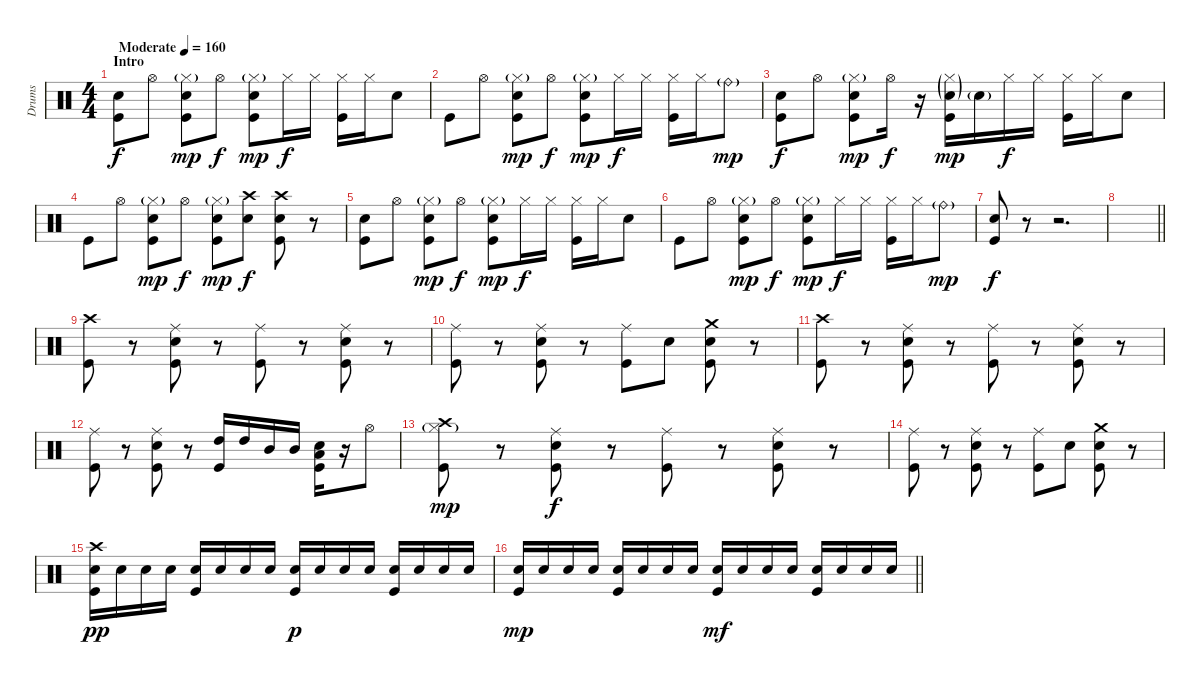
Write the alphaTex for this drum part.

\track ("Drums" "Drums") {instrument percussion}
\staff {score}
\articulation defaults
\ts (4 4)
\section ("" "Intro")
\tempo (160 "Moderate")
\clef neutral
\ks c
("Snare (hit) 2" "Kick (hit)").8{dy f} "Hi-Hat (open)".8 ("Hi-Hat (closed)"{g} "Snare (hit) 2" "Kick (hit)").8{dy mp} "Hi-Hat (open)".8{dy f} ("Hi-Hat (closed)"{g} "Snare (hit) 2" "Kick (hit)").8{dy mp} "Hi-Hat (closed)".16{dy f} "Hi-Hat (closed)".16 ("Hi-Hat (closed)" "Kick (hit)").16 "Hi-Hat (closed)".16 "Snare (hit) 2".8 |
"Kick (hit)".8 "Hi-Hat (open)".8 ("Hi-Hat (closed)"{g} "Snare (hit) 2" "Kick (hit)").8{dy mp} "Hi-Hat (open)".8{dy f} ("Hi-Hat (closed)"{g} "Snare (hit) 2" "Kick (hit)").8{dy mp} "Hi-Hat (closed)".16{dy f} "Hi-Hat (closed)".16 ("Hi-Hat (closed)" "Kick (hit)").16 "Hi-Hat (closed)".16 "Ride (bell)"{g}.8{dy mp} |
("Snare (hit) 2" "Kick (hit)").8{dy f} "Hi-Hat (open)".8 ("Hi-Hat (closed)"{g} "Snare (hit) 2" "Kick (hit)").8{dy mp} "Hi-Hat (open)".16{dy f} r.16 ("Hi-Hat (closed)"{g} "Snare (hit) 2"{g} "Kick (hit)").16{dy mp} "Snare (hit) 2"{g}.16 "Hi-Hat (closed)".16{dy f} "Hi-Hat (closed)".16 ("Hi-Hat (closed)" "Kick (hit)").16 "Hi-Hat (closed)".16 "Snare (hit) 2".8 |
"Kick (hit)".8 "Hi-Hat (open)".8 ("Hi-Hat (closed)"{g} "Snare (hit) 2" "Kick (hit)").8{dy mp} "Hi-Hat (open)".8{dy f} ("Hi-Hat (closed)"{g} "Snare (hit) 2" "Kick (hit)").8{dy mp} ("Crash high (hit)" "Snare (hit) 2").8{dy f} ("Crash high (hit)" "Snare (hit) 2" "Kick (hit)").8 r.8 |
("Snare (hit) 2" "Kick (hit)").8 "Hi-Hat (open)".8 ("Hi-Hat (closed)"{g} "Snare (hit) 2" "Kick (hit)").8{dy mp} "Hi-Hat (open)".8{dy f} ("Hi-Hat (closed)"{g} "Snare (hit) 2" "Kick (hit)").8{dy mp} "Hi-Hat (closed)".16{dy f} "Hi-Hat (closed)".16 ("Hi-Hat (closed)" "Kick (hit)").16 "Hi-Hat (closed)".16 "Snare (hit) 2".8 |
"Kick (hit)".8 "Hi-Hat (open)".8 ("Hi-Hat (closed)"{g} "Snare (hit) 2" "Kick (hit)").8{dy mp} "Hi-Hat (open)".8{dy f} ("Hi-Hat (closed)"{g} "Snare (hit) 2" "Kick (hit)").8{dy mp} "Hi-Hat (closed)".16{dy f} "Hi-Hat (closed)".16 ("Hi-Hat (closed)" "Kick (hit)").16 "Hi-Hat (closed)".16 "Ride (bell)"{g}.8{dy mp} |
("Snare (hit) 2" "Kick (hit)").8{dy f} r.8 r.2{d} |
\barLineRight lightlight
|
("Crash high (hit)" "Kick (hit)").8 r.8 ("Ride (middle)" "Kick (hit)" "Snare (hit) 2").8 r.8 ("Ride (middle)" "Kick (hit)").8 r.8 ("Ride (middle)" "Kick (hit)" "Snare (hit) 2").8 r.8 |
("Ride (middle)" "Kick (hit)").8 r.8 ("Ride (middle)" "Kick (hit)" "Snare (hit) 2").8 r.8 ("Ride (middle)" "Kick (hit)").8 "Snare (hit) 2".8 ("Crash medium (hit)" "Kick (hit)" "Snare (hit) 2").8 r.8 |
("Crash high (hit)" "Kick (hit)").8 r.8 ("Ride (middle)" "Kick (hit)" "Snare (hit) 2").8 r.8 ("Ride (middle)" "Kick (hit)").8 r.8 ("Ride (middle)" "Kick (hit)" "Snare (hit) 2").8 r.8 |
("Ride (middle)" "Kick (hit)").8 r.8 ("Ride (middle)" "Kick (hit)" "Snare (hit) 2").8 r.8 ("High Tom (hit)" "Kick (hit)").16 "High Tom (hit)".16 "Mid Tom (hit)".16 "Mid Tom (hit)".16 ("Low Floor Tom (hit)" "Kick (hit)" "Snare (hit) 2").16 r.16 "Hi-Hat (open)".8 |
("Crash high (hit)" "Kick (hit)" "Hi-Hat (closed)"{g}).8{dy mp} r.8 ("Ride (middle)" "Kick (hit)" "Snare (hit) 2").8{dy f} r.8 ("Ride (middle)" "Kick (hit)").8 r.8 ("Ride (middle)" "Kick (hit)" "Snare (hit) 2").8 r.8 |
("Ride (middle)" "Kick (hit)").8 r.8 ("Ride (middle)" "Kick (hit)" "Snare (hit) 2").8 r.8 ("Ride (middle)" "Kick (hit)").8 "Snare (hit) 2".8 ("Crash medium (hit)" "Kick (hit)" "Snare (hit) 2").8 r.8 |
("Crash high (hit)" "Kick (hit)" "Snare (hit) 2").16{dy pp} "Snare (hit) 2".16 "Snare (hit) 2".16 "Snare (hit) 2".16 ("Kick (hit)" "Snare (hit) 2").16 "Snare (hit) 2".16 "Snare (hit) 2".16 "Snare (hit) 2".16 ("Kick (hit)" "Snare (hit) 2").16{dy p} "Snare (hit) 2".16 "Snare (hit) 2".16 "Snare (hit) 2".16 ("Kick (hit)" "Snare (hit) 2").16 "Snare (hit) 2".16 "Snare (hit) 2".16 "Snare (hit) 2".16 |
\barLineRight lightlight
("Kick (hit)" "Snare (hit) 2").16{dy mp} "Snare (hit) 2".16 "Snare (hit) 2".16 "Snare (hit) 2".16 ("Kick (hit)" "Snare (hit) 2").16 "Snare (hit) 2".16 "Snare (hit) 2".16 "Snare (hit) 2".16 ("Kick (hit)" "Snare (hit) 2").16{dy mf} "Snare (hit) 2".16 "Snare (hit) 2".16 "Snare (hit) 2".16 ("Kick (hit)" "Snare (hit) 2").16 "Snare (hit) 2".16 "Snare (hit) 2".16 "Snare (hit) 2".16
